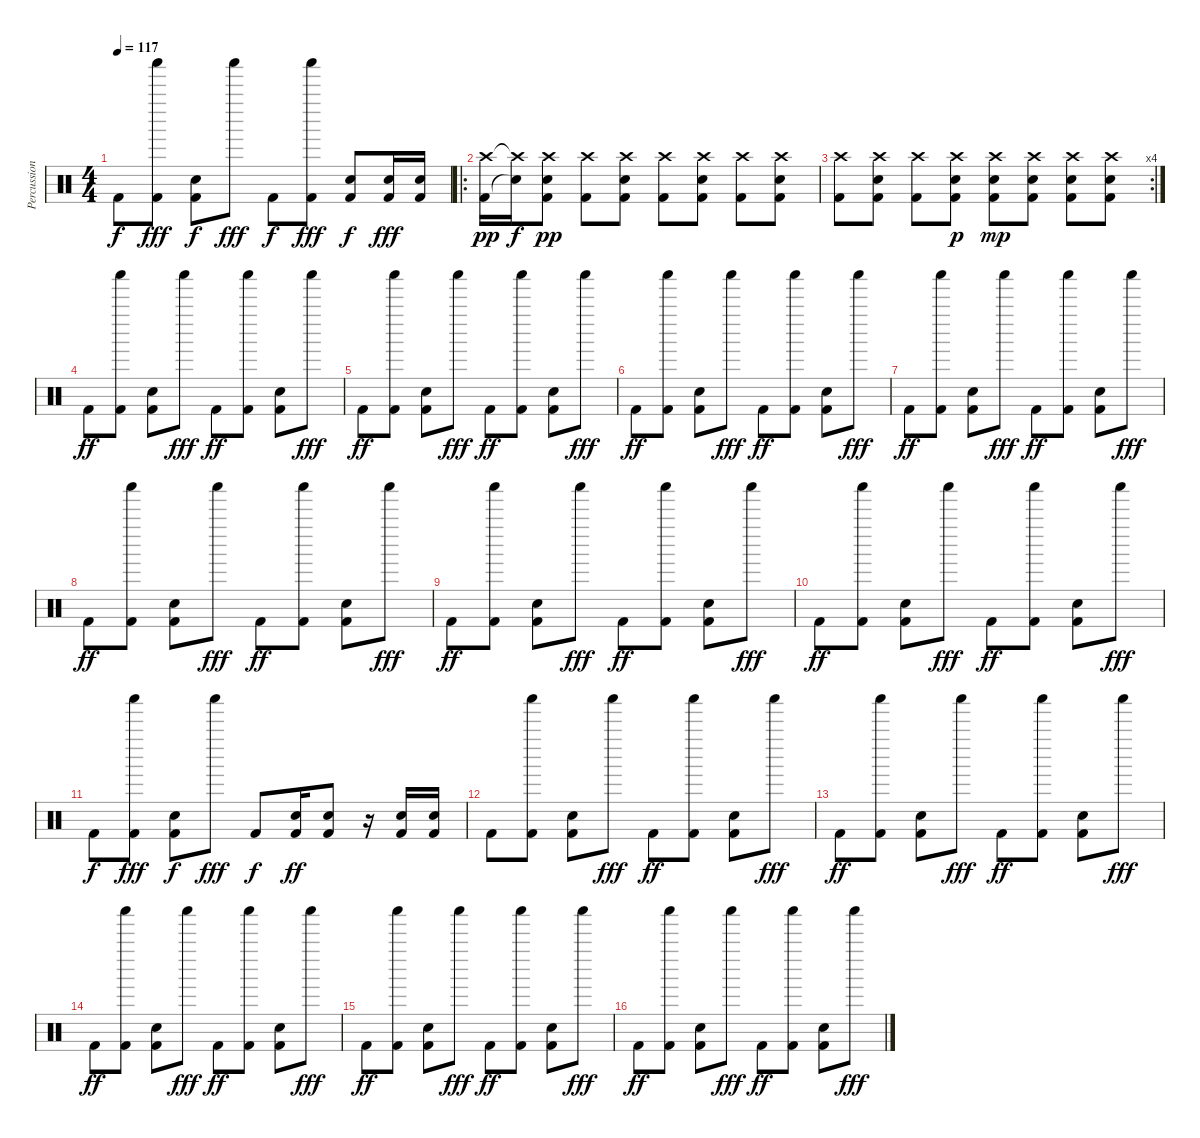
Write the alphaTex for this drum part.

\track ("Percussioni" "Percussion") {instrument percussion}
\staff {score}
\articulation defaults
\ts (4 4)
\tempo 117
\clef neutral
\ks c "Kick (hit) 2".8{dy f}
("Shaker (hit)" "Kick (hit) 2").8{dy fff} ("Electric Snare (hit)" "Kick (hit) 2").8{dy f} "Shaker (hit)".8{dy fff} "Kick (hit) 2".8{dy f} ("Shaker (hit)" "Kick (hit) 2").8{dy fff} ("Electric Snare (hit)" "Kick (hit) 2").8{dy f} ("Electric Snare (hit)" "Kick (hit) 2").16{dy fff} ("Electric Snare (hit)" "Kick (hit) 2").16 |
\ro
("Crash high (hit)" "Kick (hit) 2").16{dy pp} ("Crash high (hit)"{t} "Snare (hit)"{t}).16{dy f} ("Crash high (hit)" "Electric Snare (hit)" "Kick (hit) 2").8{dy pp} ("Crash high (hit)" "Kick (hit) 2").8 ("Crash high (hit)" "Electric Snare (hit)" "Kick (hit) 2").8 ("Crash high (hit)" "Kick (hit) 2").8 ("Crash high (hit)" "Electric Snare (hit)" "Kick (hit) 2").8 ("Crash high (hit)" "Kick (hit) 2").8 ("Crash high (hit)" "Electric Snare (hit)" "Kick (hit) 2").8 |
\rc 4
("Crash high (hit)" "Kick (hit) 2").8 ("Crash high (hit)" "Electric Snare (hit)" "Kick (hit) 2").8 ("Crash high (hit)" "Kick (hit) 2").8 ("Crash high (hit)" "Electric Snare (hit)" "Kick (hit) 2").8{dy p} ("Crash high (hit)" "Electric Snare (hit)" "Kick (hit) 2").8{dy mp} ("Crash high (hit)" "Electric Snare (hit)" "Kick (hit) 2").8 ("Crash high (hit)" "Electric Snare (hit)" "Kick (hit) 2").8 ("Crash high (hit)" "Electric Snare (hit)" "Kick (hit) 2").8 |
"Kick (hit) 2".8{dy ff} ("Shaker (hit)" "Kick (hit) 2").8 ("Electric Snare (hit)" "Kick (hit) 2").8 "Shaker (hit)".8{dy fff} "Kick (hit) 2".8{dy ff} ("Shaker (hit)" "Kick (hit) 2").8 ("Electric Snare (hit)" "Kick (hit) 2").8 "Shaker (hit)".8{dy fff} |
"Kick (hit) 2".8{dy ff} ("Shaker (hit)" "Kick (hit) 2").8 ("Electric Snare (hit)" "Kick (hit) 2").8 "Shaker (hit)".8{dy fff} "Kick (hit) 2".8{dy ff} ("Shaker (hit)" "Kick (hit) 2").8 ("Electric Snare (hit)" "Kick (hit) 2").8 "Shaker (hit)".8{dy fff} |
"Kick (hit) 2".8{dy ff} ("Shaker (hit)" "Kick (hit) 2").8 ("Electric Snare (hit)" "Kick (hit) 2").8 "Shaker (hit)".8{dy fff} "Kick (hit) 2".8{dy ff} ("Shaker (hit)" "Kick (hit) 2").8 ("Electric Snare (hit)" "Kick (hit) 2").8 "Shaker (hit)".8{dy fff} |
"Kick (hit) 2".8{dy ff} ("Shaker (hit)" "Kick (hit) 2").8 ("Electric Snare (hit)" "Kick (hit) 2").8 "Shaker (hit)".8{dy fff} "Kick (hit) 2".8{dy ff} ("Shaker (hit)" "Kick (hit) 2").8 ("Electric Snare (hit)" "Kick (hit) 2").8 "Shaker (hit)".8{dy fff} |
"Kick (hit) 2".8{dy ff} ("Shaker (hit)" "Kick (hit) 2").8 ("Electric Snare (hit)" "Kick (hit) 2").8 "Shaker (hit)".8{dy fff} "Kick (hit) 2".8{dy ff} ("Shaker (hit)" "Kick (hit) 2").8 ("Electric Snare (hit)" "Kick (hit) 2").8 "Shaker (hit)".8{dy fff} |
"Kick (hit) 2".8{dy ff} ("Shaker (hit)" "Kick (hit) 2").8 ("Electric Snare (hit)" "Kick (hit) 2").8 "Shaker (hit)".8{dy fff} "Kick (hit) 2".8{dy ff} ("Shaker (hit)" "Kick (hit) 2").8 ("Electric Snare (hit)" "Kick (hit) 2").8 "Shaker (hit)".8{dy fff} |
"Kick (hit) 2".8{dy ff} ("Shaker (hit)" "Kick (hit) 2").8 ("Electric Snare (hit)" "Kick (hit) 2").8 "Shaker (hit)".8{dy fff} "Kick (hit) 2".8{dy ff} ("Shaker (hit)" "Kick (hit) 2").8 ("Electric Snare (hit)" "Kick (hit) 2").8 "Shaker (hit)".8{dy fff} |
"Kick (hit) 2".8{dy f} ("Shaker (hit)" "Kick (hit) 2").8{dy fff} ("Electric Snare (hit)" "Kick (hit) 2").8{dy f} "Shaker (hit)".8{dy fff} "Kick (hit) 2".8{dy f} ("Electric Snare (hit)" "Kick (hit) 2").16{dy ff} ("Electric Snare (hit)" "Kick (hit) 2").8 r.16 ("Electric Snare (hit)" "Kick (hit) 2").16 ("Electric Snare (hit)" "Kick (hit) 2").16 |
"Kick (hit) 2".8 ("Shaker (hit)" "Kick (hit) 2").8 ("Electric Snare (hit)" "Kick (hit) 2").8 "Shaker (hit)".8{dy fff} "Kick (hit) 2".8{dy ff} ("Shaker (hit)" "Kick (hit) 2").8 ("Electric Snare (hit)" "Kick (hit) 2").8 "Shaker (hit)".8{dy fff} |
"Kick (hit) 2".8{dy ff} ("Shaker (hit)" "Kick (hit) 2").8 ("Electric Snare (hit)" "Kick (hit) 2").8 "Shaker (hit)".8{dy fff} "Kick (hit) 2".8{dy ff} ("Shaker (hit)" "Kick (hit) 2").8 ("Electric Snare (hit)" "Kick (hit) 2").8 "Shaker (hit)".8{dy fff} |
"Kick (hit) 2".8{dy ff} ("Shaker (hit)" "Kick (hit) 2").8 ("Electric Snare (hit)" "Kick (hit) 2").8 "Shaker (hit)".8{dy fff} "Kick (hit) 2".8{dy ff} ("Shaker (hit)" "Kick (hit) 2").8 ("Electric Snare (hit)" "Kick (hit) 2").8 "Shaker (hit)".8{dy fff} |
"Kick (hit) 2".8{dy ff} ("Shaker (hit)" "Kick (hit) 2").8 ("Electric Snare (hit)" "Kick (hit) 2").8 "Shaker (hit)".8{dy fff} "Kick (hit) 2".8{dy ff} ("Shaker (hit)" "Kick (hit) 2").8 ("Electric Snare (hit)" "Kick (hit) 2").8 "Shaker (hit)".8{dy fff} |
"Kick (hit) 2".8{dy ff} ("Shaker (hit)" "Kick (hit) 2").8 ("Electric Snare (hit)" "Kick (hit) 2").8 "Shaker (hit)".8{dy fff} "Kick (hit) 2".8{dy ff} ("Shaker (hit)" "Kick (hit) 2").8 ("Electric Snare (hit)" "Kick (hit) 2").8 "Shaker (hit)".8{dy fff}
